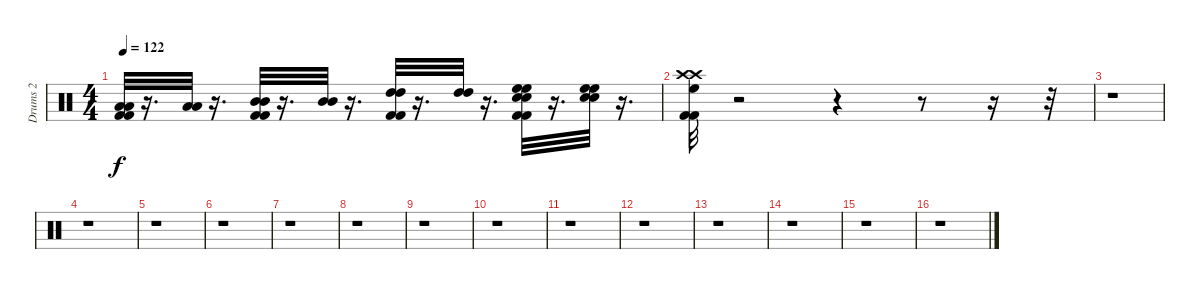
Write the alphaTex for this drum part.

\track ("Drums 2" "Drums 2") {instrument percussion}
\staff {score}
\articulation defaults
\ts (4 4)
\tempo 122
\clef neutral
\ks c
("Kick (hit) 2" "Low Tom (hit)" "Kick (hit) 2" "Low Tom (hit)").32{dy f} r.16{d} ("Low Tom (hit)" "Low Tom (hit)").32 r.16{d} ("Mid Tom (hit)" "Kick (hit) 2" "Mid Tom (hit)" "Kick (hit) 2").32 r.16{d} ("Mid Tom (hit)" "Mid Tom (hit)").32 r.16{d} ("High Tom (hit)" "Kick (hit) 2" "High Tom (hit)" "Kick (hit) 2").32 r.16{d} ("High Tom (hit)" "High Tom (hit)").32 r.16{d} ("Electric Snare (hit)" "Kick (hit) 2" "High Floor Tom (hit)" "Electric Snare (hit)" "Kick (hit) 2" "High Floor Tom (hit)").32 r.16{d} ("Electric Snare (hit)" "High Floor Tom (hit)" "Electric Snare (hit)" "High Floor Tom (hit)").32 r.16{d} |
("Crash high (hit)" "Kick (hit) 2" "Crash high (hit)" "Kick (hit) 2" "High Floor Tom (hit)").32 r.2 r.4 r.8 r.16 r.32 |
r.1 |
r.1 |
r.1 |
r.1 |
r.1 |
r.1 |
r.1 |
r.1 |
r.1 |
r.1 |
r.1 |
r.1 |
r.1 |
r.1
